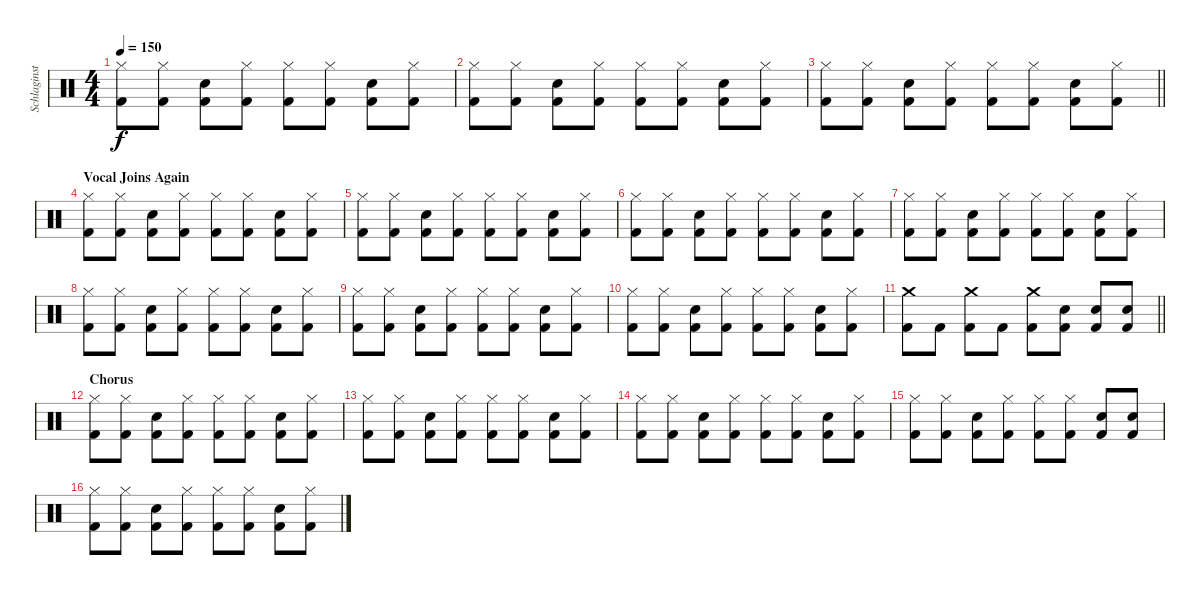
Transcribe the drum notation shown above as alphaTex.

\track ("Schlaginstrumente - Auswahl" "Schlaginst") {instrument percussion}
\staff {score}
\articulation defaults
\ts (4 4)
\tempo 150
\clef neutral
\ks c
("Hi-Hat (closed)" "Kick (hit) 2").8{dy f} ("Hi-Hat (closed)" "Kick (hit) 2").8 ("Snare (hit) 2" "Kick (hit) 2").8 ("Hi-Hat (closed)" "Kick (hit) 2").8 ("Hi-Hat (closed)" "Kick (hit) 2").8 ("Hi-Hat (closed)" "Kick (hit) 2").8 ("Snare (hit) 2" "Kick (hit) 2").8 ("Hi-Hat (closed)" "Kick (hit) 2").8 |
("Hi-Hat (closed)" "Kick (hit) 2").8 ("Hi-Hat (closed)" "Kick (hit) 2").8 ("Snare (hit) 2" "Kick (hit) 2").8 ("Hi-Hat (closed)" "Kick (hit) 2").8 ("Hi-Hat (closed)" "Kick (hit) 2").8 ("Hi-Hat (closed)" "Kick (hit) 2").8 ("Snare (hit) 2" "Kick (hit) 2").8 ("Hi-Hat (closed)" "Kick (hit) 2").8 |
\barLineRight lightlight
("Hi-Hat (closed)" "Kick (hit) 2").8 ("Hi-Hat (closed)" "Kick (hit) 2").8 ("Snare (hit) 2" "Kick (hit) 2").8 ("Hi-Hat (closed)" "Kick (hit) 2").8 ("Hi-Hat (closed)" "Kick (hit) 2").8 ("Hi-Hat (closed)" "Kick (hit) 2").8 ("Snare (hit) 2" "Kick (hit) 2").8 ("Hi-Hat (closed)" "Kick (hit) 2").8 |
\section ("" "Vocal Joins Again")
("Hi-Hat (closed)" "Kick (hit) 2").8 ("Hi-Hat (closed)" "Kick (hit) 2").8 ("Snare (hit) 2" "Kick (hit) 2").8 ("Hi-Hat (closed)" "Kick (hit) 2").8 ("Hi-Hat (closed)" "Kick (hit) 2").8 ("Hi-Hat (closed)" "Kick (hit) 2").8 ("Snare (hit) 2" "Kick (hit) 2").8 ("Hi-Hat (closed)" "Kick (hit) 2").8 |
("Hi-Hat (closed)" "Kick (hit) 2").8 ("Hi-Hat (closed)" "Kick (hit) 2").8 ("Snare (hit) 2" "Kick (hit) 2").8 ("Hi-Hat (closed)" "Kick (hit) 2").8 ("Hi-Hat (closed)" "Kick (hit) 2").8 ("Hi-Hat (closed)" "Kick (hit) 2").8 ("Snare (hit) 2" "Kick (hit) 2").8 ("Hi-Hat (closed)" "Kick (hit) 2").8 |
("Hi-Hat (closed)" "Kick (hit) 2").8 ("Hi-Hat (closed)" "Kick (hit) 2").8 ("Snare (hit) 2" "Kick (hit) 2").8 ("Hi-Hat (closed)" "Kick (hit) 2").8 ("Hi-Hat (closed)" "Kick (hit) 2").8 ("Hi-Hat (closed)" "Kick (hit) 2").8 ("Snare (hit) 2" "Kick (hit) 2").8 ("Hi-Hat (closed)" "Kick (hit) 2").8 |
("Hi-Hat (closed)" "Kick (hit) 2").8 ("Hi-Hat (closed)" "Kick (hit) 2").8 ("Snare (hit) 2" "Kick (hit) 2").8 ("Hi-Hat (closed)" "Kick (hit) 2").8 ("Hi-Hat (closed)" "Kick (hit) 2").8 ("Hi-Hat (closed)" "Kick (hit) 2").8 ("Snare (hit) 2" "Kick (hit) 2").8 ("Hi-Hat (closed)" "Kick (hit) 2").8 |
("Hi-Hat (closed)" "Kick (hit) 2").8 ("Hi-Hat (closed)" "Kick (hit) 2").8 ("Snare (hit) 2" "Kick (hit) 2").8 ("Hi-Hat (closed)" "Kick (hit) 2").8 ("Hi-Hat (closed)" "Kick (hit) 2").8 ("Hi-Hat (closed)" "Kick (hit) 2").8 ("Snare (hit) 2" "Kick (hit) 2").8 ("Hi-Hat (closed)" "Kick (hit) 2").8 |
("Hi-Hat (closed)" "Kick (hit) 2").8 ("Hi-Hat (closed)" "Kick (hit) 2").8 ("Snare (hit) 2" "Kick (hit) 2").8 ("Hi-Hat (closed)" "Kick (hit) 2").8 ("Hi-Hat (closed)" "Kick (hit) 2").8 ("Hi-Hat (closed)" "Kick (hit) 2").8 ("Snare (hit) 2" "Kick (hit) 2").8 ("Hi-Hat (closed)" "Kick (hit) 2").8 |
("Hi-Hat (closed)" "Kick (hit) 2").8 ("Hi-Hat (closed)" "Kick (hit) 2").8 ("Snare (hit) 2" "Kick (hit) 2").8 ("Hi-Hat (closed)" "Kick (hit) 2").8 ("Hi-Hat (closed)" "Kick (hit) 2").8 ("Hi-Hat (closed)" "Kick (hit) 2").8 ("Snare (hit) 2" "Kick (hit) 2").8 ("Hi-Hat (closed)" "Kick (hit) 2").8 |
\barLineRight lightlight
("Crash medium (hit)" "Kick (hit) 2").8 "Kick (hit) 2".8 ("Crash medium (hit)" "Kick (hit) 2").8 "Kick (hit) 2".8 ("Crash medium (hit)" "Kick (hit) 2").8 ("Snare (hit) 2" "Kick (hit) 2").8 ("Snare (hit) 2" "Kick (hit) 2").8 ("Snare (hit) 2" "Kick (hit) 2").8 |
\section ("" "Chorus")
("Hi-Hat (closed)" "Kick (hit) 2").8 ("Hi-Hat (closed)" "Kick (hit) 2").8 ("Snare (hit) 2" "Kick (hit) 2").8 ("Hi-Hat (closed)" "Kick (hit) 2").8 ("Hi-Hat (closed)" "Kick (hit) 2").8 ("Hi-Hat (closed)" "Kick (hit) 2").8 ("Snare (hit) 2" "Kick (hit) 2").8 ("Hi-Hat (closed)" "Kick (hit) 2").8 |
("Hi-Hat (closed)" "Kick (hit) 2").8 ("Hi-Hat (closed)" "Kick (hit) 2").8 ("Snare (hit) 2" "Kick (hit) 2").8 ("Hi-Hat (closed)" "Kick (hit) 2").8 ("Hi-Hat (closed)" "Kick (hit) 2").8 ("Hi-Hat (closed)" "Kick (hit) 2").8 ("Snare (hit) 2" "Kick (hit) 2").8 ("Hi-Hat (closed)" "Kick (hit) 2").8 |
("Hi-Hat (closed)" "Kick (hit) 2").8 ("Hi-Hat (closed)" "Kick (hit) 2").8 ("Snare (hit) 2" "Kick (hit) 2").8 ("Hi-Hat (closed)" "Kick (hit) 2").8 ("Hi-Hat (closed)" "Kick (hit) 2").8 ("Hi-Hat (closed)" "Kick (hit) 2").8 ("Snare (hit) 2" "Kick (hit) 2").8 ("Hi-Hat (closed)" "Kick (hit) 2").8 |
("Hi-Hat (closed)" "Kick (hit) 2").8 ("Hi-Hat (closed)" "Kick (hit) 2").8 ("Snare (hit) 2" "Kick (hit) 2").8 ("Hi-Hat (closed)" "Kick (hit) 2").8 ("Hi-Hat (closed)" "Kick (hit) 2").8 ("Hi-Hat (closed)" "Kick (hit) 2").8 ("Snare (hit) 2" "Kick (hit) 2").8 ("Snare (hit) 2" "Kick (hit) 2").8 |
("Hi-Hat (closed)" "Kick (hit) 2").8 ("Hi-Hat (closed)" "Kick (hit) 2").8 ("Snare (hit) 2" "Kick (hit) 2").8 ("Hi-Hat (closed)" "Kick (hit) 2").8 ("Hi-Hat (closed)" "Kick (hit) 2").8 ("Hi-Hat (closed)" "Kick (hit) 2").8 ("Snare (hit) 2" "Kick (hit) 2").8 ("Hi-Hat (closed)" "Kick (hit) 2").8
